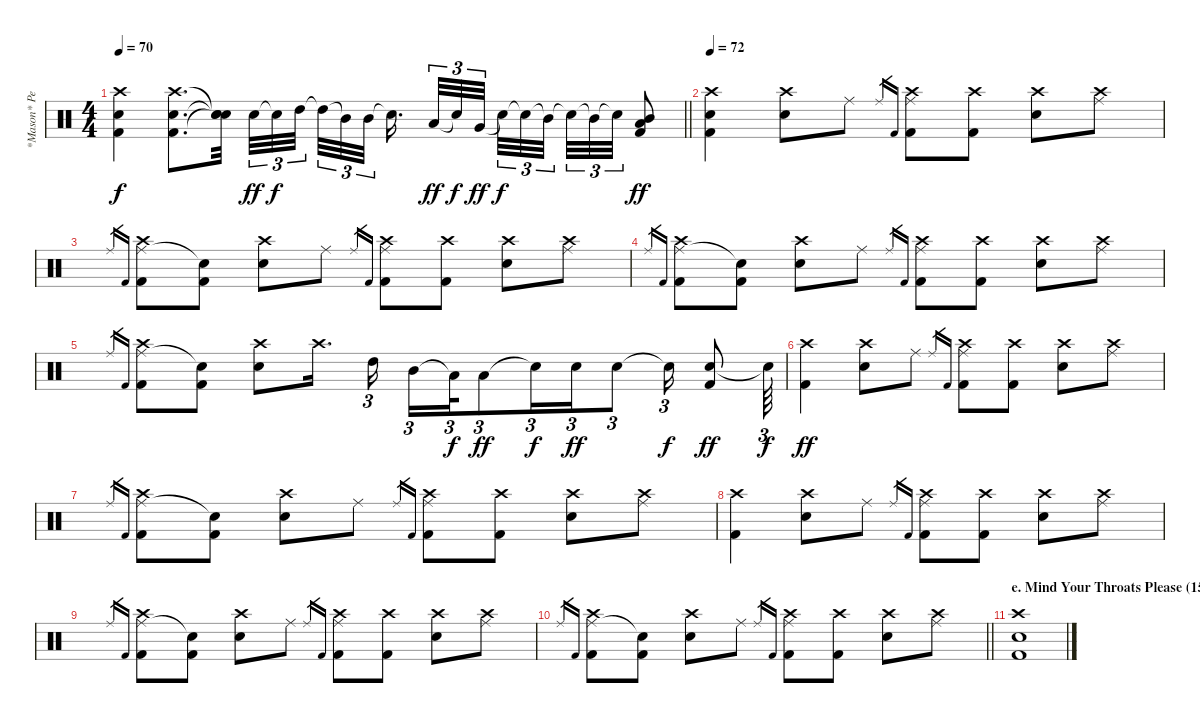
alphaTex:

\track ("*Mason* Percussion" "*Mason* Pe") {instrument percussion}
\staff {score}
\articulation defaults
\ts (4 4)
\tempo 70
\clef neutral
\barLineRight lightlight
\ks c
("Crash high (hit)" "Snare (hit) 2" "Kick (hit) 2").4{dy f} ("Crash high (hit)" "Snare (hit) 2" "Kick (hit) 2").8{d} ("Snare (hit)"{t} "Snare (hit)"{t} "Snare (hit)"{t}).32{beam splitsecondary} "Snare (hit) 2".32{tu (3 2) dy ff} "Snare (hit)"{t}.32{tu (3 2) dy f} "High Tom (hit)".32{tu (3 2) beam splitsecondary} "High Tom (hit)"{t}.32{tu (3 2)} "Mid Tom (hit)"{t}.32{tu (3 2)} "Mid Tom (hit)".32{tu (3 2) beam splitsecondary} "Snare (hit)"{t}.16{d beam splitsecondary} "Low Tom (hit)".32{tu (3 2) dy ff} "Snare (hit)"{t}.32{tu (3 2) dy f} "Very Low Tom (hit)".32{tu (3 2) dy ff} "Snare (hit)"{t}.32{tu (3 2) dy f} "Snare (hit)"{t}.32{tu (3 2)} "Mid Tom (hit)"{t}.32{tu (3 2) beam splitsecondary} "Snare (hit)"{t}.32{tu (3 2)} "Mid Tom (hit)"{t}.32{tu (3 2)} "Snare (hit)"{t}.32{tu (3 2)} ("Low Tom (hit)" "Mid Tom (hit)" "Kick (hit) 2").8{dy ff} |
\tempo 72
("Crash high (hit)" "Snare (hit) 2" "Kick (hit) 2").4 ("Crash high (hit)" "Snare (hit) 2").8 "Ride (middle)".8 "Ride (middle)".16{gr} "Kick (hit) 2".16{gr} ("Ride (middle)" "Crash high (hit)" "Kick (hit) 2").8 ("Crash high (hit)" "Kick (hit) 2").8 ("Crash high (hit)" "Snare (hit) 2").8 ("Ride (middle)" "Crash high (hit)").8 |
"Ride (middle)".16{gr} "Kick (hit) 2".16{gr} ("Ride (middle)" "Crash high (hit)" "Kick (hit) 2").8 ("Snare (hit)"{t} "Kick (hit) 2").8 ("Crash high (hit)" "Snare (hit) 2").8 "Ride (middle)".8 "Ride (middle)".16{gr} "Kick (hit) 2".16{gr} ("Ride (middle)" "Crash high (hit)" "Kick (hit) 2").8 ("Crash high (hit)" "Kick (hit) 2").8 ("Crash high (hit)" "Snare (hit) 2").8 ("Ride (middle)" "Crash high (hit)").8 |
"Ride (middle)".16{gr} "Kick (hit) 2".16{gr} ("Ride (middle)" "Crash high (hit)" "Kick (hit) 2").8 ("Snare (hit)"{t} "Kick (hit) 2").8 ("Crash high (hit)" "Snare (hit) 2").8 "Ride (middle)".8 "Ride (middle)".16{gr} "Kick (hit) 2".16{gr} ("Ride (middle)" "Crash high (hit)" "Kick (hit) 2").8 ("Crash high (hit)" "Kick (hit) 2").8 ("Crash high (hit)" "Snare (hit) 2").8 ("Ride (middle)" "Crash high (hit)").8 |
"Ride (middle)".16{gr} "Kick (hit) 2".16{gr} ("Ride (middle)" "Crash high (hit)" "Kick (hit) 2").8 ("Snare (hit)"{t} "Kick (hit) 2").8 ("Crash high (hit)" "Snare (hit) 2").8 "Crash high (hit)".16{d} "High Tom (hit)".16{tu (3 2)} "Mid Tom (hit)".16{tu (3 2)} "Low Tom (hit)"{t}.32{tu (3 2) dy f} "Low Tom (hit)".8{tu (3 2) dy ff} "Snare (hit)"{t}.16{tu (3 2) dy f} "Snare (hit) 2".16{tu (3 2) dy ff} "Snare (hit) 2".8{tu (3 2)} "Snare (hit) 2"{t}.16{tu (3 2) dy f} ("Snare (hit) 2" "Kick (hit) 2").8{dy ff} "Snare (hit)"{t}.64{tu (3 2) dy f} |
("Crash high (hit)" "Kick (hit) 2").4{dy ff} ("Crash high (hit)" "Snare (hit) 2").8 "Ride (middle)".8 "Ride (middle)".16{gr} "Kick (hit) 2".16{gr} ("Ride (middle)" "Crash high (hit)" "Kick (hit) 2").8 ("Crash high (hit)" "Kick (hit) 2").8 ("Crash high (hit)" "Snare (hit) 2").8 ("Ride (middle)" "Crash high (hit)").8 |
"Ride (middle)".16{gr} "Kick (hit) 2".16{gr} ("Ride (middle)" "Crash high (hit)" "Kick (hit) 2").8 ("Snare (hit)"{t} "Kick (hit) 2").8 ("Crash high (hit)" "Snare (hit) 2").8 "Ride (middle)".8 "Ride (middle)".16{gr} "Kick (hit) 2".16{gr} ("Ride (middle)" "Crash high (hit)" "Kick (hit) 2").8 ("Crash high (hit)" "Kick (hit) 2").8 ("Crash high (hit)" "Snare (hit) 2").8 ("Ride (middle)" "Crash high (hit)").8 |
("Crash high (hit)" "Kick (hit) 2").4 ("Crash high (hit)" "Snare (hit) 2").8 "Ride (middle)".8 "Ride (middle)".16{gr} "Kick (hit) 2".16{gr} ("Ride (middle)" "Crash high (hit)" "Kick (hit) 2").8 ("Crash high (hit)" "Kick (hit) 2").8 ("Crash high (hit)" "Snare (hit) 2").8 ("Ride (middle)" "Crash high (hit)").8 |
"Ride (middle)".16{gr} "Kick (hit) 2".16{gr} ("Ride (middle)" "Crash high (hit)" "Kick (hit) 2").8 ("Snare (hit)"{t} "Kick (hit) 2").8 ("Crash high (hit)" "Snare (hit) 2").8 "Ride (middle)".8 "Ride (middle)".16{gr} "Kick (hit) 2".16{gr} ("Ride (middle)" "Crash high (hit)" "Kick (hit) 2").8 ("Crash high (hit)" "Kick (hit) 2").8 ("Crash high (hit)" "Snare (hit) 2").8 ("Ride (middle)" "Crash high (hit)").8 |
\barLineRight lightlight "Ride (middle)".16{gr} "Kick (hit) 2".16{gr}
("Ride (middle)" "Crash high (hit)" "Kick (hit) 2").8 ("Snare (hit)"{t} "Kick (hit) 2").8 ("Crash high (hit)" "Snare (hit) 2").8 "Ride (middle)".8 "Ride (middle)".16{gr} "Kick (hit) 2".16{gr} ("Ride (middle)" "Crash high (hit)" "Kick (hit) 2").8 ("Crash high (hit)" "Kick (hit) 2").8 ("Crash high (hit)" "Snare (hit) 2").8 ("Ride (middle)" "Crash high (hit)").8 |
\section ("" "e. Mind Your Throats Please (15:27 - 18:01)")
("Crash high (hit)" "Snare (hit) 2" "Kick (hit) 2").1
